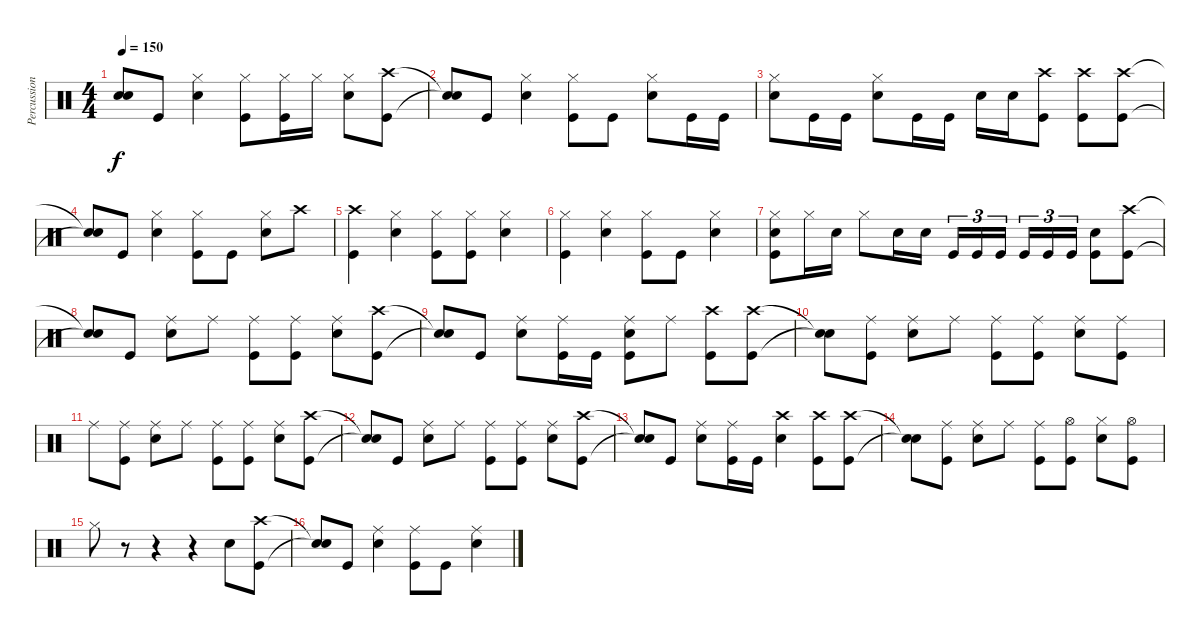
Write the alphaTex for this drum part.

\track ("Percussion" "Percussion") {instrument percussion}
\staff {score}
\articulation defaults
\ts (4 4)
\tempo 150
\clef neutral
\ks c
("Snare (hit)"{t} "Snare (hit)"{t}).8{dy f} "Kick (hit)".8 ("Hi-Hat (closed)" "Electric Snare (hit)").4 ("Hi-Hat (closed)" "Kick (hit)").8 ("Hi-Hat (closed)" "Kick (hit)").16 "Hi-Hat (closed)".16 ("Hi-Hat (closed)" "Electric Snare (hit)").8 ("Crash high (hit)" "Kick (hit)").8 |
("Snare (hit)"{t} "Snare (hit)"{t}).8 "Kick (hit)".8 ("Hi-Hat (closed)" "Electric Snare (hit)").4 ("Hi-Hat (closed)" "Kick (hit)").8 "Kick (hit)".8 ("Hi-Hat (closed)" "Electric Snare (hit)").8 "Kick (hit)".16 "Kick (hit)".16 |
("Hi-Hat (closed)" "Electric Snare (hit)").8 "Kick (hit)".16 "Kick (hit)".16 ("Hi-Hat (closed)" "Electric Snare (hit)").8 "Kick (hit)".16 "Kick (hit)".16 "Electric Snare (hit)".16 "Electric Snare (hit)".16 ("Crash high (hit)" "Kick (hit)").8 ("Crash high (hit)" "Kick (hit)").8 ("Crash high (hit)" "Kick (hit)").8 |
("Snare (hit)"{t} "Snare (hit)"{t}).8 "Kick (hit)".8 ("Hi-Hat (closed)" "Electric Snare (hit)").4 ("Hi-Hat (closed)" "Kick (hit)").8 "Kick (hit)".8 ("Hi-Hat (closed)" "Electric Snare (hit)").8 "Crash high (hit)".8 |
("Crash high (hit)" "Kick (hit)").4 ("Hi-Hat (closed)" "Electric Snare (hit)").4 ("Hi-Hat (closed)" "Kick (hit)").8 ("Hi-Hat (closed)" "Kick (hit)").8 ("Hi-Hat (closed)" "Electric Snare (hit)").4 |
("Hi-Hat (closed)" "Kick (hit)").4 ("Hi-Hat (closed)" "Electric Snare (hit)").4 ("Hi-Hat (closed)" "Kick (hit)").8 "Kick (hit)".8 ("Hi-Hat (closed)" "Electric Snare (hit)").4 |
("Electric Snare (hit)" "Hi-Hat (closed)" "Kick (hit)").8 "Hi-Hat (closed)".16 "Electric Snare (hit)".16 "Hi-Hat (closed)".8 "Electric Snare (hit)".16 "Electric Snare (hit)".16 "Kick (hit)".16{tu (3 2)} "Kick (hit)".16{tu (3 2)} "Kick (hit)".16{tu (3 2)} "Kick (hit)".16{tu (3 2)} "Kick (hit)".16{tu (3 2)} "Kick (hit)".16{tu (3 2)} ("Electric Snare (hit)" "Kick (hit)").8 ("Crash high (hit)" "Kick (hit)").8 |
("Snare (hit)"{t} "Snare (hit)"{t}).8 "Kick (hit)".8 ("Ride (middle)" "Electric Snare (hit)").8 "Ride (middle)".8 ("Ride (middle)" "Kick (hit)").8 ("Ride (middle)" "Kick (hit)").8 ("Ride (middle)" "Electric Snare (hit)").8 ("Crash high (hit)" "Kick (hit)").8 |
("Snare (hit)"{t} "Snare (hit)"{t}).8 "Kick (hit)".8 ("Ride (middle)" "Electric Snare (hit)").8 ("Ride (middle)" "Kick (hit)").16 "Kick (hit)".16 ("Electric Snare (hit)" "Ride (middle)" "Kick (hit)").8 "Ride (middle)".8 ("Crash high (hit)" "Kick (hit)").8 ("Crash high (hit)" "Kick (hit)").8 |
("Snare (hit)"{t} "Snare (hit)"{t}).8 ("Ride (middle)" "Kick (hit)").8 ("Ride (middle)" "Electric Snare (hit)").8 "Ride (middle)".8 ("Ride (middle)" "Kick (hit)").8 ("Ride (middle)" "Kick (hit)").8 ("Ride (middle)" "Electric Snare (hit)").8 ("Ride (middle)" "Kick (hit)").8 |
"Ride (middle)".8 ("Ride (middle)" "Kick (hit)").8 ("Ride (middle)" "Electric Snare (hit)").8 "Ride (middle)".8 ("Ride (middle)" "Kick (hit)").8 ("Ride (middle)" "Kick (hit)").8 ("Ride (middle)" "Electric Snare (hit)").8 ("Crash high (hit)" "Kick (hit)").8 |
("Snare (hit)"{t} "Snare (hit)"{t}).8 "Kick (hit)".8 ("Ride (middle)" "Electric Snare (hit)").8 "Ride (middle)".8 ("Ride (middle)" "Kick (hit)").8 ("Ride (middle)" "Kick (hit)").8 ("Ride (middle)" "Electric Snare (hit)").8 ("Crash high (hit)" "Kick (hit)").8 |
("Snare (hit)"{t} "Snare (hit)"{t}).8 "Kick (hit)".8 ("Ride (middle)" "Electric Snare (hit)").8 ("Ride (middle)" "Kick (hit)").16 "Kick (hit)".16 ("Crash high (hit)" "Electric Snare (hit)").4 ("Crash high (hit)" "Kick (hit)").8 ("Crash high (hit)" "Kick (hit)").8 |
("Snare (hit)"{t} "Snare (hit)"{t}).8 ("Ride (middle)" "Kick (hit)").8 ("Ride (middle)" "Electric Snare (hit)").8 "Ride (middle)".8 ("Ride (middle)" "Kick (hit)").8 ("Hi-Hat (open)" "Kick (hit)").8 ("Hi-Hat (closed)" "Electric Snare (hit)").8 ("Hi-Hat (open)" "Kick (hit)").8 |
"Hi-Hat (closed)".8 r.8 r.4 r.4 "Electric Snare (hit)".8 ("Crash high (hit)" "Kick (hit)").8 |
("Snare (hit)"{t} "Snare (hit)"{t}).8 "Kick (hit)".8 ("Ride (middle)" "Electric Snare (hit)").4 ("Ride (middle)" "Kick (hit)").8 "Kick (hit)".8 ("Ride (middle)" "Electric Snare (hit)").4
